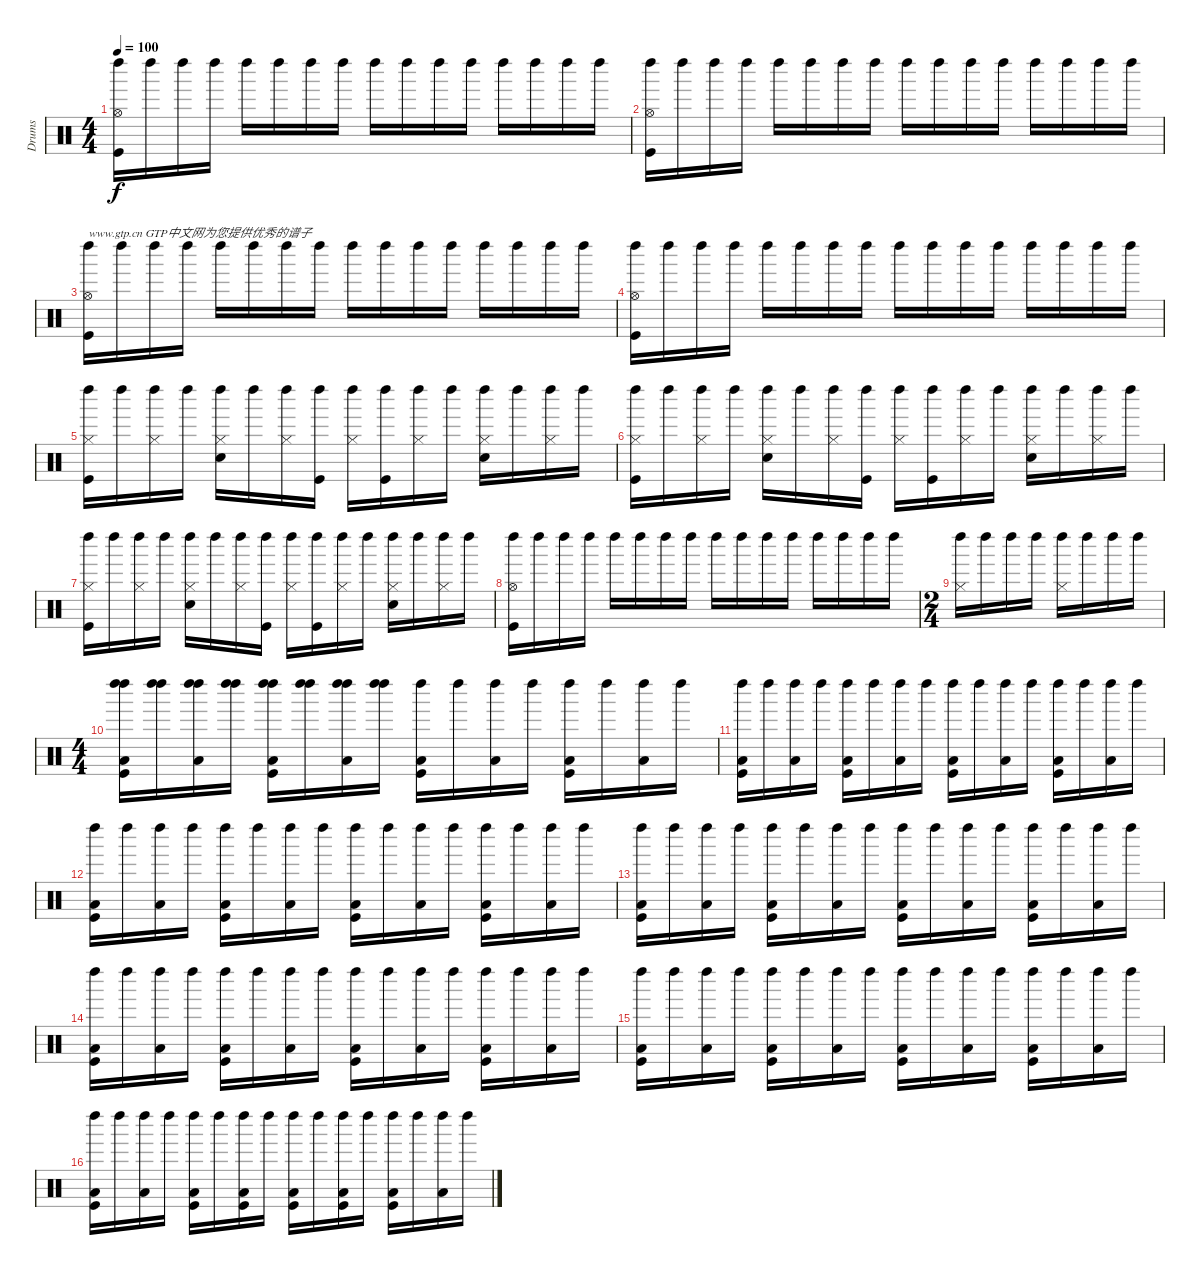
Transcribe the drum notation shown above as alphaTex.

\track ("Drums" "Drums") {instrument percussion}
\staff {score}
\articulation defaults
\ts (4 4)
\tempo 100
\clef neutral
\ks c
("Kick (hit)" "Hi-Hat (open)" "Left Maraca (hit)").16{dy f} "Left Maraca (hit)".16 "Left Maraca (hit)".16 "Left Maraca (hit)".16 "Left Maraca (hit)".16 "Left Maraca (hit)".16 "Left Maraca (hit)".16 "Left Maraca (hit)".16 "Left Maraca (hit)".16 "Left Maraca (hit)".16 "Left Maraca (hit)".16 "Left Maraca (hit)".16 "Left Maraca (hit)".16 "Left Maraca (hit)".16 "Left Maraca (hit)".16 "Left Maraca (hit)".16 |
("Kick (hit)" "Hi-Hat (open)" "Left Maraca (hit)").16 "Left Maraca (hit)".16 "Left Maraca (hit)".16 "Left Maraca (hit)".16 "Left Maraca (hit)".16 "Left Maraca (hit)".16 "Left Maraca (hit)".16 "Left Maraca (hit)".16 "Left Maraca (hit)".16 "Left Maraca (hit)".16 "Left Maraca (hit)".16 "Left Maraca (hit)".16 "Left Maraca (hit)".16 "Left Maraca (hit)".16 "Left Maraca (hit)".16 "Left Maraca (hit)".16 |
("Kick (hit)" "Hi-Hat (open)" "Left Maraca (hit)").16{txt "www.gtp.cn GTP中文网为您提供优秀的谱子"} "Left Maraca (hit)".16 "Left Maraca (hit)".16 "Left Maraca (hit)".16 "Left Maraca (hit)".16 "Left Maraca (hit)".16 "Left Maraca (hit)".16 "Left Maraca (hit)".16 "Left Maraca (hit)".16 "Left Maraca (hit)".16 "Left Maraca (hit)".16 "Left Maraca (hit)".16 "Left Maraca (hit)".16 "Left Maraca (hit)".16 "Left Maraca (hit)".16 "Left Maraca (hit)".16 |
("Kick (hit)" "Hi-Hat (open)" "Left Maraca (hit)").16 "Left Maraca (hit)".16 "Left Maraca (hit)".16 "Left Maraca (hit)".16 "Left Maraca (hit)".16 "Left Maraca (hit)".16 "Left Maraca (hit)".16 "Left Maraca (hit)".16 "Left Maraca (hit)".16 "Left Maraca (hit)".16 "Left Maraca (hit)".16 "Left Maraca (hit)".16 "Left Maraca (hit)".16 "Left Maraca (hit)".16 "Left Maraca (hit)".16 "Left Maraca (hit)".16 |
("Hi-Hat (closed)" "Kick (hit)" "Left Maraca (hit)").16 "Left Maraca (hit)".16 ("Hi-Hat (closed)" "Left Maraca (hit)").16 "Left Maraca (hit)".16 ("Hi-Hat (closed)" "Electric Snare (hit)" "Left Maraca (hit)").16 "Left Maraca (hit)".16 ("Hi-Hat (closed)" "Left Maraca (hit)").16 ("Kick (hit)" "Left Maraca (hit)").16 ("Hi-Hat (closed)" "Left Maraca (hit)").16 ("Kick (hit)" "Left Maraca (hit)").16 ("Hi-Hat (closed)" "Left Maraca (hit)").16 "Left Maraca (hit)".16 ("Hi-Hat (closed)" "Electric Snare (hit)" "Left Maraca (hit)").16 "Left Maraca (hit)".16 ("Hi-Hat (closed)" "Left Maraca (hit)").16 "Left Maraca (hit)".16 |
("Hi-Hat (closed)" "Kick (hit)" "Left Maraca (hit)").16 "Left Maraca (hit)".16 ("Hi-Hat (closed)" "Left Maraca (hit)").16 "Left Maraca (hit)".16 ("Hi-Hat (closed)" "Electric Snare (hit)" "Left Maraca (hit)").16 "Left Maraca (hit)".16 ("Hi-Hat (closed)" "Left Maraca (hit)").16 ("Kick (hit)" "Left Maraca (hit)").16 ("Hi-Hat (closed)" "Left Maraca (hit)").16 ("Kick (hit)" "Left Maraca (hit)").16 ("Hi-Hat (closed)" "Left Maraca (hit)").16 "Left Maraca (hit)".16 ("Hi-Hat (closed)" "Electric Snare (hit)" "Left Maraca (hit)").16 "Left Maraca (hit)".16 ("Hi-Hat (closed)" "Left Maraca (hit)").16 "Left Maraca (hit)".16 |
("Hi-Hat (closed)" "Kick (hit)" "Left Maraca (hit)").16 "Left Maraca (hit)".16 ("Hi-Hat (closed)" "Left Maraca (hit)").16 "Left Maraca (hit)".16 ("Hi-Hat (closed)" "Electric Snare (hit)" "Left Maraca (hit)").16 "Left Maraca (hit)".16 ("Hi-Hat (closed)" "Left Maraca (hit)").16 ("Kick (hit)" "Left Maraca (hit)").16 ("Hi-Hat (closed)" "Left Maraca (hit)").16 ("Kick (hit)" "Left Maraca (hit)").16 ("Hi-Hat (closed)" "Left Maraca (hit)").16 "Left Maraca (hit)".16 ("Hi-Hat (closed)" "Electric Snare (hit)" "Left Maraca (hit)").16 "Left Maraca (hit)".16 ("Hi-Hat (closed)" "Left Maraca (hit)").16 "Left Maraca (hit)".16 |
("Kick (hit)" "Hi-Hat (open)" "Left Maraca (hit)").16 "Left Maraca (hit)".16 "Left Maraca (hit)".16 "Left Maraca (hit)".16 "Left Maraca (hit)".16 "Left Maraca (hit)".16 "Left Maraca (hit)".16 "Left Maraca (hit)".16 "Left Maraca (hit)".16 "Left Maraca (hit)".16 "Left Maraca (hit)".16 "Left Maraca (hit)".16 "Left Maraca (hit)".16 "Left Maraca (hit)".16 "Left Maraca (hit)".16 "Left Maraca (hit)".16 |
\ts (2 4)
("Hi-Hat (closed)" "Left Maraca (hit)").16 "Left Maraca (hit)".16 "Left Maraca (hit)".16 "Left Maraca (hit)".16 ("Hi-Hat (closed)" "Left Maraca (hit)").16 "Left Maraca (hit)".16 "Left Maraca (hit)".16 "Left Maraca (hit)".16 |
\ts (4 4)
("Kick (hit)" "Low Floor Tom (hit)" "Left Maraca (hit)" "Left Maraca (hit)").16 ("Left Maraca (hit)" "Left Maraca (hit)").16 ("Low Floor Tom (hit)" "Left Maraca (hit)" "Left Maraca (hit)").16 ("Left Maraca (hit)" "Left Maraca (hit)").16 ("Kick (hit)" "Low Floor Tom (hit)" "Left Maraca (hit)" "Left Maraca (hit)").16 ("Left Maraca (hit)" "Left Maraca (hit)").16 ("Low Floor Tom (hit)" "Left Maraca (hit)" "Left Maraca (hit)").16 ("Left Maraca (hit)" "Left Maraca (hit)").16 ("Kick (hit)" "Low Floor Tom (hit)" "Left Maraca (hit)").16 "Left Maraca (hit)".16 ("Low Floor Tom (hit)" "Left Maraca (hit)").16 "Left Maraca (hit)".16 ("Kick (hit)" "Low Floor Tom (hit)" "Left Maraca (hit)").16 "Left Maraca (hit)".16 ("Low Floor Tom (hit)" "Left Maraca (hit)").16 "Left Maraca (hit)".16 |
("Kick (hit)" "Low Floor Tom (hit)" "Left Maraca (hit)").16 "Left Maraca (hit)".16 ("Low Floor Tom (hit)" "Left Maraca (hit)").16 "Left Maraca (hit)".16 ("Kick (hit)" "Low Floor Tom (hit)" "Left Maraca (hit)").16 "Left Maraca (hit)".16 ("Low Floor Tom (hit)" "Left Maraca (hit)").16 "Left Maraca (hit)".16 ("Kick (hit)" "Low Floor Tom (hit)" "Left Maraca (hit)").16 "Left Maraca (hit)".16 ("Low Floor Tom (hit)" "Left Maraca (hit)").16 "Left Maraca (hit)".16 ("Kick (hit)" "Low Floor Tom (hit)" "Left Maraca (hit)").16 "Left Maraca (hit)".16 ("Low Floor Tom (hit)" "Left Maraca (hit)").16 "Left Maraca (hit)".16 |
("Kick (hit)" "Low Floor Tom (hit)" "Left Maraca (hit)").16 "Left Maraca (hit)".16 ("Low Floor Tom (hit)" "Left Maraca (hit)").16 "Left Maraca (hit)".16 ("Kick (hit)" "Low Floor Tom (hit)" "Left Maraca (hit)").16 "Left Maraca (hit)".16 ("Low Floor Tom (hit)" "Left Maraca (hit)").16 "Left Maraca (hit)".16 ("Kick (hit)" "Low Floor Tom (hit)" "Left Maraca (hit)").16 "Left Maraca (hit)".16 ("Low Floor Tom (hit)" "Left Maraca (hit)").16 "Left Maraca (hit)".16 ("Kick (hit)" "Low Floor Tom (hit)" "Left Maraca (hit)").16 "Left Maraca (hit)".16 ("Low Floor Tom (hit)" "Left Maraca (hit)").16 "Left Maraca (hit)".16 |
("Kick (hit)" "Low Floor Tom (hit)" "Left Maraca (hit)").16 "Left Maraca (hit)".16 ("Low Floor Tom (hit)" "Left Maraca (hit)").16 "Left Maraca (hit)".16 ("Kick (hit)" "Low Floor Tom (hit)" "Left Maraca (hit)").16 "Left Maraca (hit)".16 ("Low Floor Tom (hit)" "Left Maraca (hit)").16 "Left Maraca (hit)".16 ("Kick (hit)" "Low Floor Tom (hit)" "Left Maraca (hit)").16 "Left Maraca (hit)".16 ("Low Floor Tom (hit)" "Left Maraca (hit)").16 "Left Maraca (hit)".16 ("Kick (hit)" "Low Floor Tom (hit)" "Left Maraca (hit)").16 "Left Maraca (hit)".16 ("Low Floor Tom (hit)" "Left Maraca (hit)").16 "Left Maraca (hit)".16 |
("Kick (hit)" "Low Floor Tom (hit)" "Left Maraca (hit)").16 "Left Maraca (hit)".16 ("Low Floor Tom (hit)" "Left Maraca (hit)").16 "Left Maraca (hit)".16 ("Kick (hit)" "Low Floor Tom (hit)" "Left Maraca (hit)").16 "Left Maraca (hit)".16 ("Low Floor Tom (hit)" "Left Maraca (hit)").16 "Left Maraca (hit)".16 ("Kick (hit)" "Low Floor Tom (hit)" "Left Maraca (hit)").16 "Left Maraca (hit)".16 ("Low Floor Tom (hit)" "Left Maraca (hit)").16 "Left Maraca (hit)".16 ("Kick (hit)" "Low Floor Tom (hit)" "Left Maraca (hit)").16 "Left Maraca (hit)".16 ("Low Floor Tom (hit)" "Left Maraca (hit)").16 "Left Maraca (hit)".16 |
("Kick (hit)" "Low Floor Tom (hit)" "Left Maraca (hit)").16 "Left Maraca (hit)".16 ("Low Floor Tom (hit)" "Left Maraca (hit)").16 "Left Maraca (hit)".16 ("Kick (hit)" "Low Floor Tom (hit)" "Left Maraca (hit)").16 "Left Maraca (hit)".16 ("Low Floor Tom (hit)" "Left Maraca (hit)").16 "Left Maraca (hit)".16 ("Kick (hit)" "Low Floor Tom (hit)" "Left Maraca (hit)").16 "Left Maraca (hit)".16 ("Low Floor Tom (hit)" "Left Maraca (hit)").16 "Left Maraca (hit)".16 ("Kick (hit)" "Low Floor Tom (hit)" "Left Maraca (hit)").16 "Left Maraca (hit)".16 ("Low Floor Tom (hit)" "Left Maraca (hit)").16 "Left Maraca (hit)".16 |
("Kick (hit)" "Low Floor Tom (hit)" "Left Maraca (hit)").16 "Left Maraca (hit)".16 ("Low Floor Tom (hit)" "Left Maraca (hit)").16 "Left Maraca (hit)".16 ("Kick (hit)" "Low Floor Tom (hit)" "Left Maraca (hit)").16 "Left Maraca (hit)".16 ("Kick (hit)" "Low Floor Tom (hit)" "Left Maraca (hit)").16 "Left Maraca (hit)".16 ("Kick (hit)" "Low Floor Tom (hit)" "Left Maraca (hit)").16 "Left Maraca (hit)".16 ("Kick (hit)" "Low Floor Tom (hit)" "Left Maraca (hit)").16 "Left Maraca (hit)".16 ("Kick (hit)" "Low Floor Tom (hit)" "Left Maraca (hit)").16 "Left Maraca (hit)".16 ("Low Floor Tom (hit)" "Left Maraca (hit)").16 "Left Maraca (hit)".16
